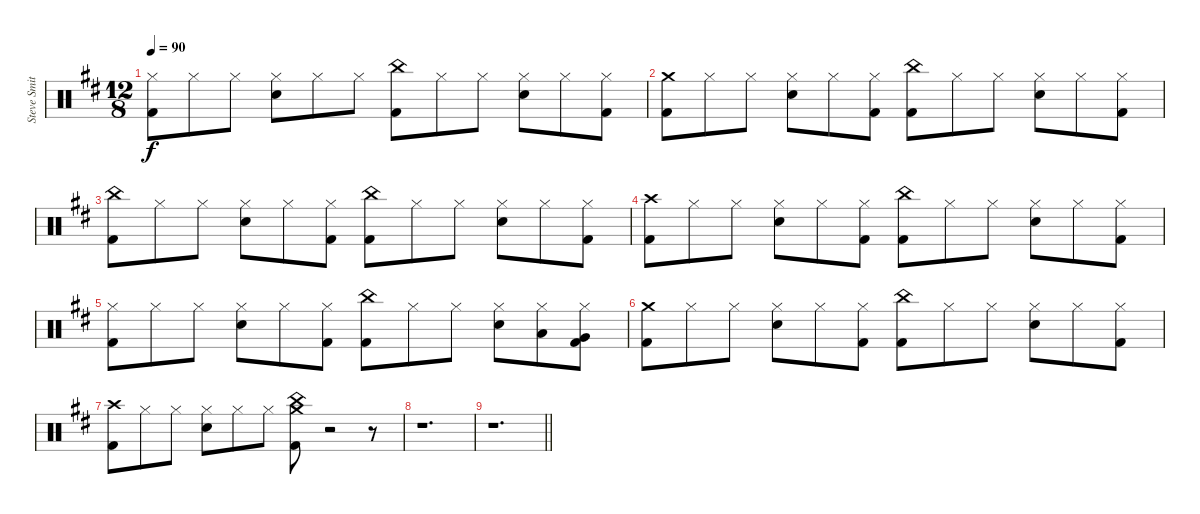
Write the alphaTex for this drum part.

\track ("Steve Smith" "Steve Smit") {instrument percussion}
\staff {score}
\articulation defaults
\ts (12 8)
\tempo 90
\clef neutral
\ks d
("Hi-Hat (closed)" "Kick (hit) 2").8{dy f} "Hi-Hat (closed)".8 "Hi-Hat (closed)".8 ("Hi-Hat (closed)" "Electric Snare (hit)").8 "Hi-Hat (closed)".8 "Hi-Hat (closed)".8 ("China (hit)" "Kick (hit) 2").8 "Hi-Hat (closed)".8 "Hi-Hat (closed)".8 ("Hi-Hat (closed)" "Electric Snare (hit)").8 "Hi-Hat (closed)".8 ("Hi-Hat (closed)" "Kick (hit) 2").8 |
("Crash medium (hit)" "Kick (hit) 2").8 "Hi-Hat (closed)".8 "Hi-Hat (closed)".8 ("Hi-Hat (closed)" "Electric Snare (hit)").8 "Hi-Hat (closed)".8 ("Hi-Hat (closed)" "Kick (hit) 2").8 ("China (hit)" "Kick (hit) 2").8 "Hi-Hat (closed)".8 "Hi-Hat (closed)".8 ("Hi-Hat (closed)" "Electric Snare (hit)").8 "Hi-Hat (closed)".8 ("Hi-Hat (closed)" "Kick (hit) 2").8 |
("China (hit)" "Kick (hit) 2").8 "Hi-Hat (closed)".8 "Hi-Hat (closed)".8 ("Hi-Hat (closed)" "Electric Snare (hit)").8 "Hi-Hat (closed)".8 ("Hi-Hat (closed)" "Kick (hit) 2").8 ("China (hit)" "Kick (hit) 2").8 "Hi-Hat (closed)".8 "Hi-Hat (closed)".8 ("Hi-Hat (closed)" "Electric Snare (hit)").8 "Hi-Hat (closed)".8 ("Hi-Hat (closed)" "Kick (hit) 2").8 |
("Crash high (hit)" "Kick (hit) 2").8 "Hi-Hat (closed)".8 "Hi-Hat (closed)".8 ("Hi-Hat (closed)" "Electric Snare (hit)").8 "Hi-Hat (closed)".8 ("Hi-Hat (closed)" "Kick (hit) 2").8 ("China (hit)" "Kick (hit) 2").8 "Hi-Hat (closed)".8 "Hi-Hat (closed)".8 ("Hi-Hat (closed)" "Electric Snare (hit)").8 "Hi-Hat (closed)".8 ("Hi-Hat (closed)" "Kick (hit) 2").8 |
("Hi-Hat (closed)" "Kick (hit) 2").8 "Hi-Hat (closed)".8 "Hi-Hat (closed)".8 ("Hi-Hat (closed)" "Electric Snare (hit)").8 "Hi-Hat (closed)".8 ("Hi-Hat (closed)" "Kick (hit) 2").8 ("China (hit)" "Kick (hit) 2").8 "Hi-Hat (closed)".8 "Hi-Hat (closed)".8 ("Hi-Hat (closed)" "Electric Snare (hit)").8 ("Hi-Hat (closed)" "Low Tom (hit)").8 ("Hi-Hat (closed)" "Very Low Tom (hit)" "Kick (hit) 2").8 |
("Crash medium (hit)" "Kick (hit) 2").8 "Hi-Hat (closed)".8 "Hi-Hat (closed)".8 ("Hi-Hat (closed)" "Electric Snare (hit)").8 "Hi-Hat (closed)".8 ("Hi-Hat (closed)" "Kick (hit) 2").8 ("China (hit)" "Kick (hit) 2").8 "Hi-Hat (closed)".8 "Hi-Hat (closed)".8 ("Hi-Hat (closed)" "Electric Snare (hit)").8 "Hi-Hat (closed)".8 ("Hi-Hat (closed)" "Kick (hit) 2").8 |
("Crash high (hit)" "Kick (hit) 2").8 "Hi-Hat (closed)".8 "Hi-Hat (closed)".8 ("Hi-Hat (closed)" "Electric Snare (hit)").8 "Hi-Hat (closed)".8 "Hi-Hat (closed)".8 ("Crash medium (hit)" "China (hit)" "Kick (hit) 2").8 r.2 r.8 |
r.1{d} |
\barLineRight lightlight
r.1{d}
